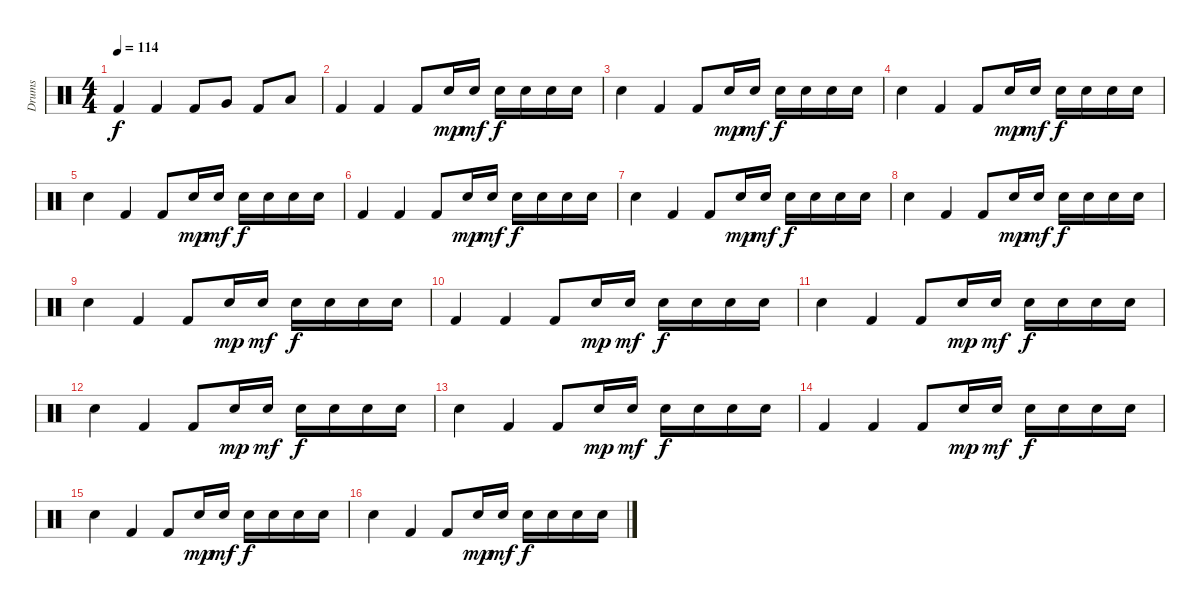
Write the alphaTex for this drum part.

\track ("Drums" "Drums") {instrument percussion}
\staff {score}
\articulation defaults
\ts (4 4)
\tempo 114
\clef neutral
\ks c "Kick (hit) 2".4{dy f} "Kick (hit) 2".4 "Kick (hit) 2".8 "Very Low Tom (hit)".8 "Kick (hit) 2".8 "Low Floor Tom (hit)".8
|
"Kick (hit) 2".4 "Kick (hit) 2".4 "Kick (hit) 2".8 "Electric Snare (hit)".16{dy mp} "Electric Snare (hit)".16{dy mf} "Electric Snare (hit)".16{dy f} "Electric Snare (hit)".16 "Electric Snare (hit)".16 "Electric Snare (hit)".16 |
"Electric Snare (hit)".4 "Kick (hit) 2".4 "Kick (hit) 2".8 "Electric Snare (hit)".16{dy mp} "Electric Snare (hit)".16{dy mf} "Electric Snare (hit)".16{dy f} "Electric Snare (hit)".16 "Electric Snare (hit)".16 "Electric Snare (hit)".16 |
"Electric Snare (hit)".4 "Kick (hit) 2".4 "Kick (hit) 2".8 "Electric Snare (hit)".16{dy mp} "Electric Snare (hit)".16{dy mf} "Electric Snare (hit)".16{dy f} "Electric Snare (hit)".16 "Electric Snare (hit)".16 "Electric Snare (hit)".16 |
"Electric Snare (hit)".4 "Kick (hit) 2".4 "Kick (hit) 2".8 "Electric Snare (hit)".16{dy mp} "Electric Snare (hit)".16{dy mf} "Electric Snare (hit)".16{dy f} "Electric Snare (hit)".16 "Electric Snare (hit)".16 "Electric Snare (hit)".16 |
"Kick (hit) 2".4 "Kick (hit) 2".4 "Kick (hit) 2".8 "Electric Snare (hit)".16{dy mp} "Electric Snare (hit)".16{dy mf} "Electric Snare (hit)".16{dy f} "Electric Snare (hit)".16 "Electric Snare (hit)".16 "Electric Snare (hit)".16 |
"Electric Snare (hit)".4 "Kick (hit) 2".4 "Kick (hit) 2".8 "Electric Snare (hit)".16{dy mp} "Electric Snare (hit)".16{dy mf} "Electric Snare (hit)".16{dy f} "Electric Snare (hit)".16 "Electric Snare (hit)".16 "Electric Snare (hit)".16 |
"Electric Snare (hit)".4 "Kick (hit) 2".4 "Kick (hit) 2".8 "Electric Snare (hit)".16{dy mp} "Electric Snare (hit)".16{dy mf} "Electric Snare (hit)".16{dy f} "Electric Snare (hit)".16 "Electric Snare (hit)".16 "Electric Snare (hit)".16 |
"Electric Snare (hit)".4 "Kick (hit) 2".4 "Kick (hit) 2".8 "Electric Snare (hit)".16{dy mp} "Electric Snare (hit)".16{dy mf} "Electric Snare (hit)".16{dy f} "Electric Snare (hit)".16 "Electric Snare (hit)".16 "Electric Snare (hit)".16 |
"Kick (hit) 2".4 "Kick (hit) 2".4 "Kick (hit) 2".8 "Electric Snare (hit)".16{dy mp} "Electric Snare (hit)".16{dy mf} "Electric Snare (hit)".16{dy f} "Electric Snare (hit)".16 "Electric Snare (hit)".16 "Electric Snare (hit)".16 |
"Electric Snare (hit)".4 "Kick (hit) 2".4 "Kick (hit) 2".8 "Electric Snare (hit)".16{dy mp} "Electric Snare (hit)".16{dy mf} "Electric Snare (hit)".16{dy f} "Electric Snare (hit)".16 "Electric Snare (hit)".16 "Electric Snare (hit)".16 |
"Electric Snare (hit)".4 "Kick (hit) 2".4 "Kick (hit) 2".8 "Electric Snare (hit)".16{dy mp} "Electric Snare (hit)".16{dy mf} "Electric Snare (hit)".16{dy f} "Electric Snare (hit)".16 "Electric Snare (hit)".16 "Electric Snare (hit)".16 |
"Electric Snare (hit)".4 "Kick (hit) 2".4 "Kick (hit) 2".8 "Electric Snare (hit)".16{dy mp} "Electric Snare (hit)".16{dy mf} "Electric Snare (hit)".16{dy f} "Electric Snare (hit)".16 "Electric Snare (hit)".16 "Electric Snare (hit)".16 |
"Kick (hit) 2".4 "Kick (hit) 2".4 "Kick (hit) 2".8 "Electric Snare (hit)".16{dy mp} "Electric Snare (hit)".16{dy mf} "Electric Snare (hit)".16{dy f} "Electric Snare (hit)".16 "Electric Snare (hit)".16 "Electric Snare (hit)".16 |
"Electric Snare (hit)".4 "Kick (hit) 2".4 "Kick (hit) 2".8 "Electric Snare (hit)".16{dy mp} "Electric Snare (hit)".16{dy mf} "Electric Snare (hit)".16{dy f} "Electric Snare (hit)".16 "Electric Snare (hit)".16 "Electric Snare (hit)".16 |
"Electric Snare (hit)".4 "Kick (hit) 2".4 "Kick (hit) 2".8 "Electric Snare (hit)".16{dy mp} "Electric Snare (hit)".16{dy mf} "Electric Snare (hit)".16{dy f} "Electric Snare (hit)".16 "Electric Snare (hit)".16 "Electric Snare (hit)".16
